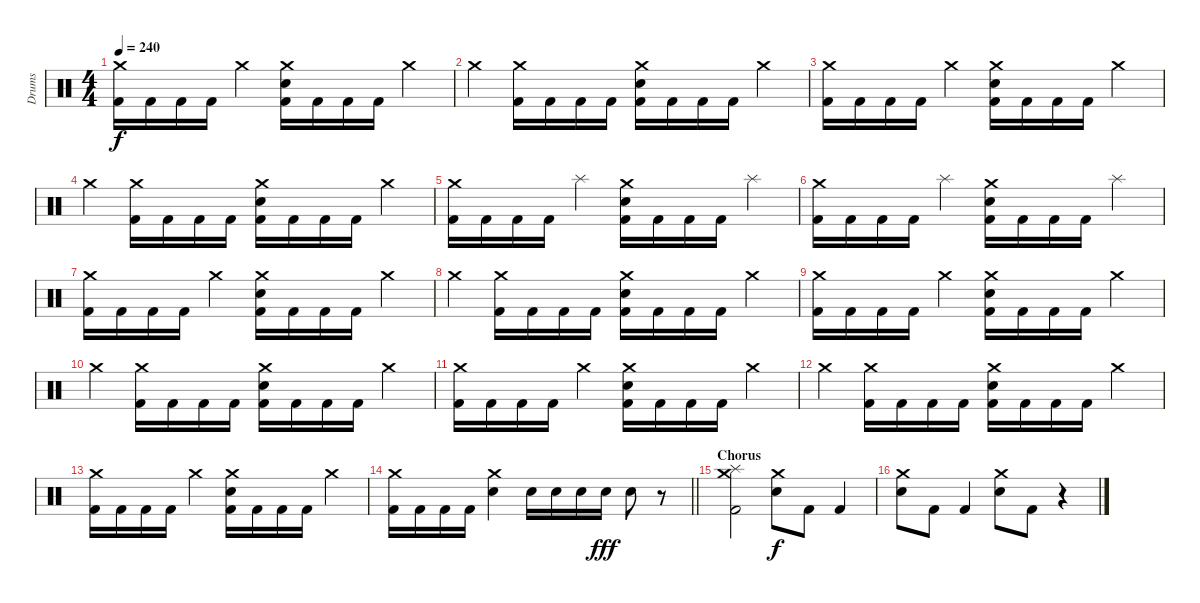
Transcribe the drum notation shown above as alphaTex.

\track ("Drums" "Drums") {instrument percussion}
\staff {score}
\articulation defaults
\ts (4 4)
\tempo 240
\clef neutral
\ks c
("Crash medium (hit)" "Kick (hit) 2").16{dy f} "Kick (hit) 2".16 "Kick (hit) 2".16 "Kick (hit) 2".16 "Crash medium (hit)".4 ("Crash medium (hit)" "Electric Snare (hit)" "Kick (hit) 2").16 "Kick (hit) 2".16 "Kick (hit) 2".16 "Kick (hit) 2".16 "Crash medium (hit)".4 |
"Crash medium (hit)".4 ("Crash medium (hit)" "Kick (hit) 2").16 "Kick (hit) 2".16 "Kick (hit) 2".16 "Kick (hit) 2".16 ("Crash medium (hit)" "Electric Snare (hit)" "Kick (hit) 2").16 "Kick (hit) 2".16 "Kick (hit) 2".16 "Kick (hit) 2".16 "Crash medium (hit)".4 |
("Crash medium (hit)" "Kick (hit) 2").16 "Kick (hit) 2".16 "Kick (hit) 2".16 "Kick (hit) 2".16 "Crash medium (hit)".4 ("Crash medium (hit)" "Electric Snare (hit)" "Kick (hit) 2").16 "Kick (hit) 2".16 "Kick (hit) 2".16 "Kick (hit) 2".16 "Crash medium (hit)".4 |
"Crash medium (hit)".4 ("Crash medium (hit)" "Kick (hit) 2").16 "Kick (hit) 2".16 "Kick (hit) 2".16 "Kick (hit) 2".16 ("Crash medium (hit)" "Electric Snare (hit)" "Kick (hit) 2").16 "Kick (hit) 2".16 "Kick (hit) 2".16 "Kick (hit) 2".16 "Crash medium (hit)".4 |
("Crash medium (hit)" "Kick (hit) 2").16 "Kick (hit) 2".16 "Kick (hit) 2".16 "Kick (hit) 2".16 "Splash (hit)".4 ("Crash medium (hit)" "Electric Snare (hit)" "Kick (hit) 2").16 "Kick (hit) 2".16 "Kick (hit) 2".16 "Kick (hit) 2".16 "Splash (hit)".4 |
("Crash medium (hit)" "Kick (hit) 2").16 "Kick (hit) 2".16 "Kick (hit) 2".16 "Kick (hit) 2".16 "Splash (hit)".4 ("Crash medium (hit)" "Electric Snare (hit)" "Kick (hit) 2").16 "Kick (hit) 2".16 "Kick (hit) 2".16 "Kick (hit) 2".16 "Splash (hit)".4 |
("Crash medium (hit)" "Kick (hit) 2").16 "Kick (hit) 2".16 "Kick (hit) 2".16 "Kick (hit) 2".16 "Crash medium (hit)".4 ("Crash medium (hit)" "Electric Snare (hit)" "Kick (hit) 2").16 "Kick (hit) 2".16 "Kick (hit) 2".16 "Kick (hit) 2".16 "Crash medium (hit)".4 |
"Crash medium (hit)".4 ("Crash medium (hit)" "Kick (hit) 2").16 "Kick (hit) 2".16 "Kick (hit) 2".16 "Kick (hit) 2".16 ("Crash medium (hit)" "Electric Snare (hit)" "Kick (hit) 2").16 "Kick (hit) 2".16 "Kick (hit) 2".16 "Kick (hit) 2".16 "Crash medium (hit)".4 |
("Crash medium (hit)" "Kick (hit) 2").16 "Kick (hit) 2".16 "Kick (hit) 2".16 "Kick (hit) 2".16 "Crash medium (hit)".4 ("Crash medium (hit)" "Electric Snare (hit)" "Kick (hit) 2").16 "Kick (hit) 2".16 "Kick (hit) 2".16 "Kick (hit) 2".16 "Crash medium (hit)".4 |
"Crash medium (hit)".4 ("Crash medium (hit)" "Kick (hit) 2").16 "Kick (hit) 2".16 "Kick (hit) 2".16 "Kick (hit) 2".16 ("Crash medium (hit)" "Electric Snare (hit)" "Kick (hit) 2").16 "Kick (hit) 2".16 "Kick (hit) 2".16 "Kick (hit) 2".16 "Crash medium (hit)".4 |
("Crash medium (hit)" "Kick (hit) 2").16 "Kick (hit) 2".16 "Kick (hit) 2".16 "Kick (hit) 2".16 "Crash medium (hit)".4 ("Crash medium (hit)" "Electric Snare (hit)" "Kick (hit) 2").16 "Kick (hit) 2".16 "Kick (hit) 2".16 "Kick (hit) 2".16 "Crash medium (hit)".4 |
"Crash medium (hit)".4 ("Crash medium (hit)" "Kick (hit) 2").16 "Kick (hit) 2".16 "Kick (hit) 2".16 "Kick (hit) 2".16 ("Crash medium (hit)" "Electric Snare (hit)" "Kick (hit) 2").16 "Kick (hit) 2".16 "Kick (hit) 2".16 "Kick (hit) 2".16 "Crash medium (hit)".4 |
("Crash medium (hit)" "Kick (hit) 2").16 "Kick (hit) 2".16 "Kick (hit) 2".16 "Kick (hit) 2".16 "Crash medium (hit)".4 ("Crash medium (hit)" "Electric Snare (hit)" "Kick (hit) 2").16 "Kick (hit) 2".16 "Kick (hit) 2".16 "Kick (hit) 2".16 "Crash medium (hit)".4 |
\barLineRight lightlight
("Crash medium (hit)" "Kick (hit) 2").16 "Kick (hit) 2".16 "Kick (hit) 2".16 "Kick (hit) 2".16 ("Crash medium (hit)" "Electric Snare (hit)").4 "Electric Snare (hit)".16 "Electric Snare (hit)".16 "Electric Snare (hit)".16 "Electric Snare (hit)".16{dy fff} "Electric Snare (hit)".8 r.8 |
\section ("" "Chorus")
("Splash (hit)" "Crash medium (hit)" "Kick (hit) 2").2 ("Crash medium (hit)" "Electric Snare (hit)").8{dy f} "Kick (hit) 2".8 "Kick (hit) 2".4 |
("Crash medium (hit)" "Electric Snare (hit)").8 "Kick (hit) 2".8 "Kick (hit) 2".4 ("Crash medium (hit)" "Electric Snare (hit)").8 "Kick (hit) 2".8 r.4
